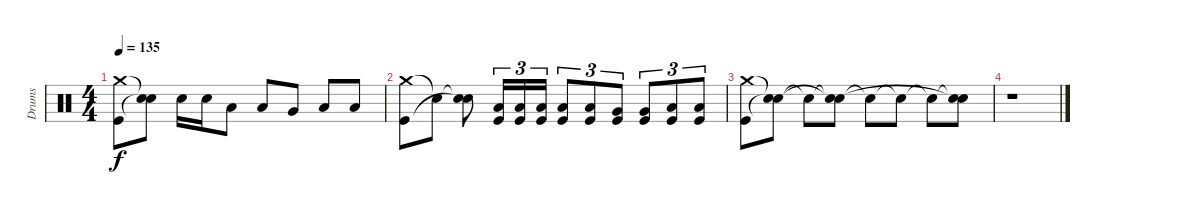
\track ("Drums" "Drums") {instrument percussion}
\staff {score}
\articulation defaults
\ts (4 4)
\tempo 135
\clef neutral
\ks c
("Crash medium (hit)" "Kick (hit)").8{dy f} ("Snare (hit)"{t} "Snare (hit)"{t}).8 "Electric Snare (hit)".16 "Electric Snare (hit)".16 "Low Tom (hit)".8 "Low Tom (hit)".8 "Very Low Tom (hit)".8 "Low Floor Tom (hit)".8 "Low Floor Tom (hit)".8 |
("Crash medium (hit)" "Kick (hit)").8 "Snare (hit)"{t}.8 ("Snare (hit)"{t} "Snare (hit)"{t}).8 ("Low Tom (hit)" "Kick (hit)").16{tu (3 2)} ("Low Tom (hit)" "Kick (hit)").16{tu (3 2)} ("Low Tom (hit)" "Kick (hit)").16{tu (3 2)} ("Low Tom (hit)" "Kick (hit)").8{tu (3 2)} ("Low Tom (hit)" "Kick (hit)").8{tu (3 2)} ("Very Low Tom (hit)" "Kick (hit)").8{tu (3 2)} ("Very Low Tom (hit)" "Kick (hit)").8{tu (3 2)} ("Low Floor Tom (hit)" "Kick (hit)").8{tu (3 2)} ("Low Floor Tom (hit)" "Kick (hit)").8{tu (3 2)} |
("Crash medium (hit)" "Kick (hit)").8 ("Snare (hit)"{t} "Snare (hit)"{t}).8 "Snare (hit)"{t}.8 ("Snare (hit)"{t} "Snare (hit)"{t}).8 "Snare (hit)"{t}.8 "Snare (hit)"{t}.8 "Snare (hit)"{t}.8 ("Snare (hit)"{t} "Snare (hit)"{t}).8 |
r.1
